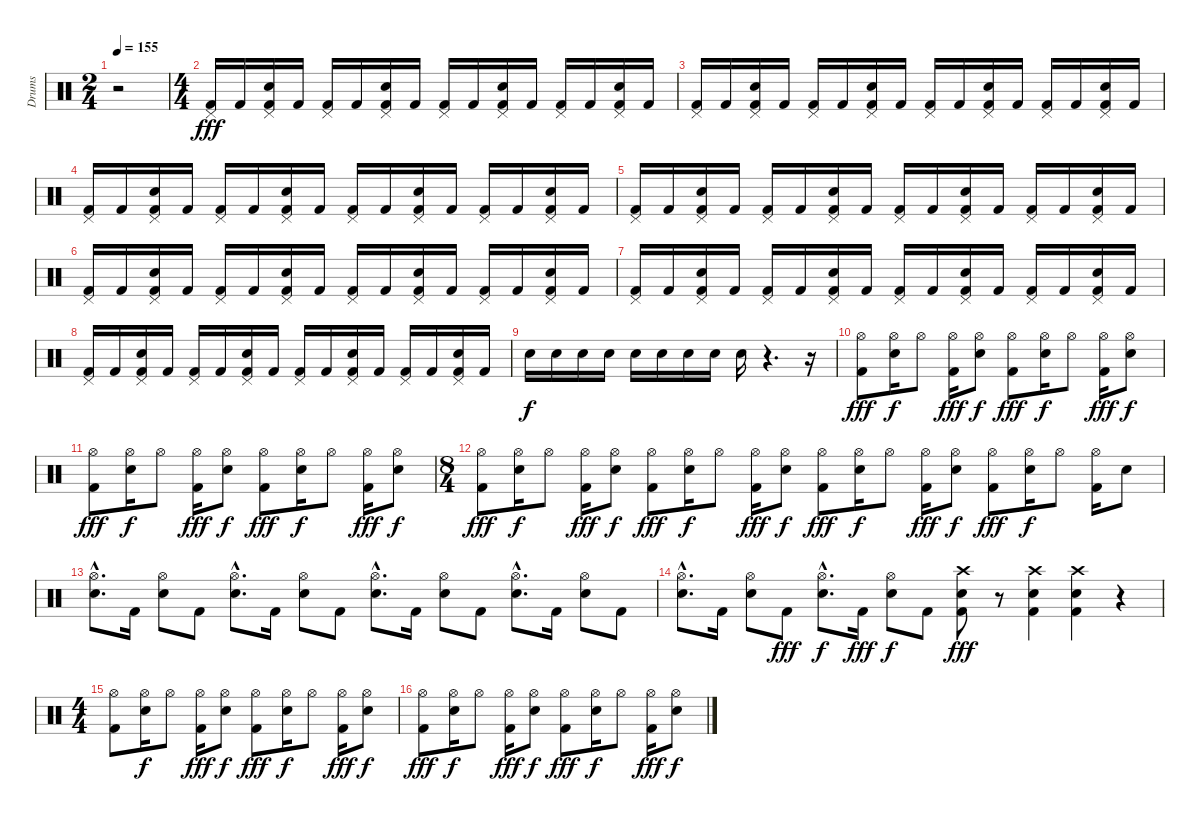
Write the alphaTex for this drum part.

\track ("Drums" "Drums") {instrument percussion}
\staff {score}
\articulation defaults
\ts (2 4)
\tempo 155
\clef neutral
\ks c
r.2{dy ff} |
\ts (4 4)
("Kick (hit) 2" "Pedal Hi-Hat (hit)").16{dy fff} "Kick (hit) 2".16 ("Kick (hit) 2" "Electric Snare (hit)" "Pedal Hi-Hat (hit)").16 "Kick (hit) 2".16 ("Kick (hit) 2" "Pedal Hi-Hat (hit)").16 "Kick (hit) 2".16 ("Kick (hit) 2" "Electric Snare (hit)" "Pedal Hi-Hat (hit)").16 "Kick (hit) 2".16 ("Kick (hit) 2" "Pedal Hi-Hat (hit)").16 "Kick (hit) 2".16 ("Kick (hit) 2" "Electric Snare (hit)" "Pedal Hi-Hat (hit)").16 "Kick (hit) 2".16 ("Kick (hit) 2" "Pedal Hi-Hat (hit)").16 "Kick (hit) 2".16 ("Kick (hit) 2" "Electric Snare (hit)" "Pedal Hi-Hat (hit)").16 "Kick (hit) 2".16 |
("Kick (hit) 2" "Pedal Hi-Hat (hit)").16 "Kick (hit) 2".16 ("Kick (hit) 2" "Electric Snare (hit)" "Pedal Hi-Hat (hit)").16 "Kick (hit) 2".16 ("Kick (hit) 2" "Pedal Hi-Hat (hit)").16 "Kick (hit) 2".16 ("Kick (hit) 2" "Electric Snare (hit)" "Pedal Hi-Hat (hit)").16 "Kick (hit) 2".16 ("Kick (hit) 2" "Pedal Hi-Hat (hit)").16 "Kick (hit) 2".16 ("Kick (hit) 2" "Electric Snare (hit)" "Pedal Hi-Hat (hit)").16 "Kick (hit) 2".16 ("Kick (hit) 2" "Pedal Hi-Hat (hit)").16 "Kick (hit) 2".16 ("Kick (hit) 2" "Electric Snare (hit)" "Pedal Hi-Hat (hit)").16 "Kick (hit) 2".16 |
("Kick (hit) 2" "Pedal Hi-Hat (hit)").16 "Kick (hit) 2".16 ("Kick (hit) 2" "Electric Snare (hit)" "Pedal Hi-Hat (hit)").16 "Kick (hit) 2".16 ("Kick (hit) 2" "Pedal Hi-Hat (hit)").16 "Kick (hit) 2".16 ("Kick (hit) 2" "Electric Snare (hit)" "Pedal Hi-Hat (hit)").16 "Kick (hit) 2".16 ("Kick (hit) 2" "Pedal Hi-Hat (hit)").16 "Kick (hit) 2".16 ("Kick (hit) 2" "Electric Snare (hit)" "Pedal Hi-Hat (hit)").16 "Kick (hit) 2".16 ("Kick (hit) 2" "Pedal Hi-Hat (hit)").16 "Kick (hit) 2".16 ("Kick (hit) 2" "Electric Snare (hit)" "Pedal Hi-Hat (hit)").16 "Kick (hit) 2".16 |
("Kick (hit) 2" "Pedal Hi-Hat (hit)").16 "Kick (hit) 2".16 ("Kick (hit) 2" "Electric Snare (hit)" "Pedal Hi-Hat (hit)").16 "Kick (hit) 2".16 ("Kick (hit) 2" "Pedal Hi-Hat (hit)").16 "Kick (hit) 2".16 ("Kick (hit) 2" "Electric Snare (hit)" "Pedal Hi-Hat (hit)").16 "Kick (hit) 2".16 ("Kick (hit) 2" "Pedal Hi-Hat (hit)").16 "Kick (hit) 2".16 ("Kick (hit) 2" "Electric Snare (hit)" "Pedal Hi-Hat (hit)").16 "Kick (hit) 2".16 ("Kick (hit) 2" "Pedal Hi-Hat (hit)").16 "Kick (hit) 2".16 ("Kick (hit) 2" "Electric Snare (hit)" "Pedal Hi-Hat (hit)").16 "Kick (hit) 2".16 |
("Kick (hit) 2" "Pedal Hi-Hat (hit)").16 "Kick (hit) 2".16 ("Kick (hit) 2" "Electric Snare (hit)" "Pedal Hi-Hat (hit)").16 "Kick (hit) 2".16 ("Kick (hit) 2" "Pedal Hi-Hat (hit)").16 "Kick (hit) 2".16 ("Kick (hit) 2" "Electric Snare (hit)" "Pedal Hi-Hat (hit)").16 "Kick (hit) 2".16 ("Kick (hit) 2" "Pedal Hi-Hat (hit)").16 "Kick (hit) 2".16 ("Kick (hit) 2" "Electric Snare (hit)" "Pedal Hi-Hat (hit)").16 "Kick (hit) 2".16 ("Kick (hit) 2" "Pedal Hi-Hat (hit)").16 "Kick (hit) 2".16 ("Kick (hit) 2" "Electric Snare (hit)" "Pedal Hi-Hat (hit)").16 "Kick (hit) 2".16 |
("Kick (hit) 2" "Pedal Hi-Hat (hit)").16 "Kick (hit) 2".16 ("Kick (hit) 2" "Electric Snare (hit)" "Pedal Hi-Hat (hit)").16 "Kick (hit) 2".16 ("Kick (hit) 2" "Pedal Hi-Hat (hit)").16 "Kick (hit) 2".16 ("Kick (hit) 2" "Electric Snare (hit)" "Pedal Hi-Hat (hit)").16 "Kick (hit) 2".16 ("Kick (hit) 2" "Pedal Hi-Hat (hit)").16 "Kick (hit) 2".16 ("Kick (hit) 2" "Electric Snare (hit)" "Pedal Hi-Hat (hit)").16 "Kick (hit) 2".16 ("Kick (hit) 2" "Pedal Hi-Hat (hit)").16 "Kick (hit) 2".16 ("Kick (hit) 2" "Electric Snare (hit)" "Pedal Hi-Hat (hit)").16 "Kick (hit) 2".16 |
("Kick (hit) 2" "Pedal Hi-Hat (hit)").16 "Kick (hit) 2".16 ("Kick (hit) 2" "Electric Snare (hit)" "Pedal Hi-Hat (hit)").16 "Kick (hit) 2".16 ("Kick (hit) 2" "Pedal Hi-Hat (hit)").16 "Kick (hit) 2".16 ("Kick (hit) 2" "Electric Snare (hit)" "Pedal Hi-Hat (hit)").16 "Kick (hit) 2".16 ("Kick (hit) 2" "Pedal Hi-Hat (hit)").16 "Kick (hit) 2".16 ("Kick (hit) 2" "Electric Snare (hit)" "Pedal Hi-Hat (hit)").16 "Kick (hit) 2".16 ("Kick (hit) 2" "Pedal Hi-Hat (hit)").16 "Kick (hit) 2".16 ("Kick (hit) 2" "Electric Snare (hit)" "Pedal Hi-Hat (hit)").16 "Kick (hit) 2".16 |
"Electric Snare (hit)".16{dy f} "Electric Snare (hit)".16 "Electric Snare (hit)".16 "Electric Snare (hit)".16 "Electric Snare (hit)".16 "Electric Snare (hit)".16 "Electric Snare (hit)".16 "Electric Snare (hit)".16 "Electric Snare (hit)".16 r.4{d} r.16 |
("Kick (hit) 2" "Hi-Hat (open)").8{dy fff} ("Electric Snare (hit)" "Hi-Hat (open)").16{dy f} "Hi-Hat (open)".8 ("Kick (hit) 2" "Hi-Hat (open)").16{dy fff} ("Electric Snare (hit)" "Hi-Hat (open)").8{dy f} ("Kick (hit) 2" "Hi-Hat (open)").8{dy fff} ("Electric Snare (hit)" "Hi-Hat (open)").16{dy f} "Hi-Hat (open)".8 ("Kick (hit) 2" "Hi-Hat (open)").16{dy fff} ("Electric Snare (hit)" "Hi-Hat (open)").8{dy f} |
("Kick (hit) 2" "Hi-Hat (open)").8{dy fff} ("Electric Snare (hit)" "Hi-Hat (open)").16{dy f} "Hi-Hat (open)".8 ("Kick (hit) 2" "Hi-Hat (open)").16{dy fff} ("Electric Snare (hit)" "Hi-Hat (open)").8{dy f} ("Kick (hit) 2" "Hi-Hat (open)").8{dy fff} ("Electric Snare (hit)" "Hi-Hat (open)").16{dy f} "Hi-Hat (open)".8 ("Kick (hit) 2" "Hi-Hat (open)").16{dy fff} ("Electric Snare (hit)" "Hi-Hat (open)").8{dy f} |
\ts (8 4)
("Kick (hit) 2" "Hi-Hat (open)").8{dy fff} ("Electric Snare (hit)" "Hi-Hat (open)").16{dy f} "Hi-Hat (open)".8 ("Kick (hit) 2" "Hi-Hat (open)").16{dy fff} ("Electric Snare (hit)" "Hi-Hat (open)").8{dy f} ("Kick (hit) 2" "Hi-Hat (open)").8{dy fff} ("Electric Snare (hit)" "Hi-Hat (open)").16{dy f} "Hi-Hat (open)".8 ("Kick (hit) 2" "Hi-Hat (open)").16{dy fff} ("Electric Snare (hit)" "Hi-Hat (open)").8{dy f} ("Kick (hit) 2" "Hi-Hat (open)").8{dy fff} ("Electric Snare (hit)" "Hi-Hat (open)").16{dy f} "Hi-Hat (open)".8 ("Kick (hit) 2" "Hi-Hat (open)").16{dy fff} ("Electric Snare (hit)" "Hi-Hat (open)").8{dy f} ("Kick (hit) 2" "Hi-Hat (open)").8{dy fff} ("Electric Snare (hit)" "Hi-Hat (open)").16{dy f} "Hi-Hat (open)".8 ("Kick (hit) 2" "Hi-Hat (open)").16 "Electric Snare (hit)".8 |
("Electric Snare (hit)"{hac} "Hi-Hat (open)"{hac}).8{d} "Kick (hit) 2".16 ("Electric Snare (hit)" "Hi-Hat (open)").8 "Kick (hit) 2".8 ("Electric Snare (hit)"{hac} "Hi-Hat (open)"{hac}).8{d} "Kick (hit) 2".16 ("Electric Snare (hit)" "Hi-Hat (open)").8 "Kick (hit) 2".8 ("Electric Snare (hit)"{hac} "Hi-Hat (open)"{hac}).8{d} "Kick (hit) 2".16 ("Electric Snare (hit)" "Hi-Hat (open)").8 "Kick (hit) 2".8 ("Electric Snare (hit)"{hac} "Hi-Hat (open)"{hac}).8{d} "Kick (hit) 2".16 ("Electric Snare (hit)" "Hi-Hat (open)").8 "Kick (hit) 2".8 |
("Electric Snare (hit)"{hac} "Hi-Hat (open)"{hac}).8{d} "Kick (hit) 2".16 ("Electric Snare (hit)" "Hi-Hat (open)").8 "Kick (hit) 2".8{dy fff} ("Electric Snare (hit)"{hac} "Hi-Hat (open)"{hac}).8{d dy f} "Kick (hit) 2".16{dy fff} ("Electric Snare (hit)" "Hi-Hat (open)").8{dy f} "Kick (hit) 2".8 ("Kick (hit) 2" "Electric Snare (hit)" "Crash high (hit)").8{dy fff} r.8 ("Kick (hit) 2" "Electric Snare (hit)" "Crash high (hit)").4 ("Kick (hit) 2" "Electric Snare (hit)" "Crash high (hit)").4 r.4 |
\ts (4 4)
("Kick (hit) 2" "Hi-Hat (open)").8 ("Electric Snare (hit)" "Hi-Hat (open)").16{dy f} "Hi-Hat (open)".8 ("Kick (hit) 2" "Hi-Hat (open)").16{dy fff} ("Electric Snare (hit)" "Hi-Hat (open)").8{dy f} ("Kick (hit) 2" "Hi-Hat (open)").8{dy fff} ("Electric Snare (hit)" "Hi-Hat (open)").16{dy f} "Hi-Hat (open)".8 ("Kick (hit) 2" "Hi-Hat (open)").16{dy fff} ("Electric Snare (hit)" "Hi-Hat (open)").8{dy f} |
("Kick (hit) 2" "Hi-Hat (open)").8{dy fff} ("Electric Snare (hit)" "Hi-Hat (open)").16{dy f} "Hi-Hat (open)".8 ("Kick (hit) 2" "Hi-Hat (open)").16{dy fff} ("Electric Snare (hit)" "Hi-Hat (open)").8{dy f} ("Kick (hit) 2" "Hi-Hat (open)").8{dy fff} ("Electric Snare (hit)" "Hi-Hat (open)").16{dy f} "Hi-Hat (open)".8 ("Kick (hit) 2" "Hi-Hat (open)").16{dy fff} ("Electric Snare (hit)" "Hi-Hat (open)").8{dy f}
